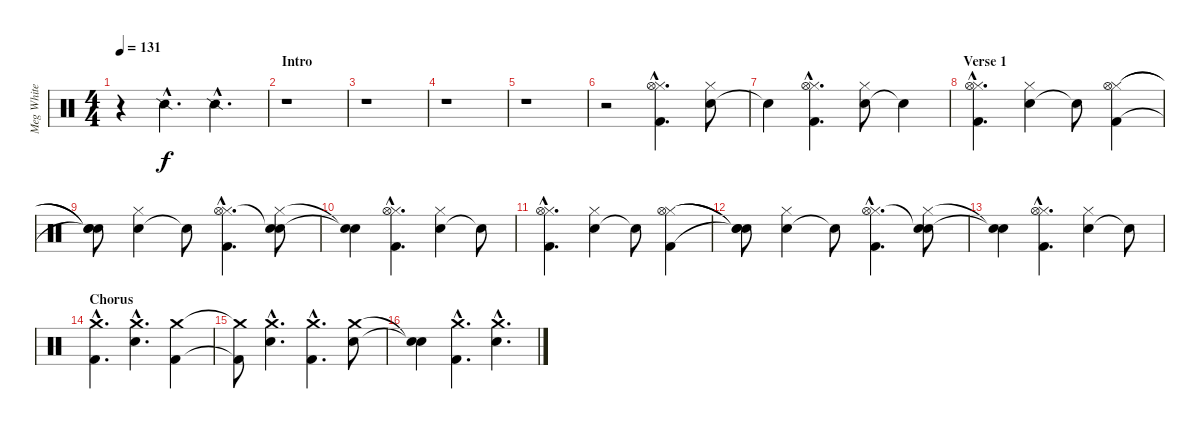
\track ("Meg White" "Meg White") {instrument percussion}
\staff {score}
\articulation defaults
\ts (4 4)
\tempo 131
\clef neutral
\ks c
r.4{dy f} "Snare (side stick) 2"{hac}.4{d} "Snare (side stick) 2"{hac}.4{d} |
\section ("" "Intro")
r.1 |
r.1 |
r.1 |
r.1 |
r.2 ("Kick (hit) 2"{hac} "Hi-Hat (closed)"{hac} "Hi-Hat (open)"{hac}).4{d} ("Electric Snare (hit)" "Hi-Hat (closed)").8 |
"Snare (hit)"{t}.4 ("Kick (hit) 2"{hac} "Hi-Hat (closed)"{hac} "Hi-Hat (open)"{hac}).4{d} ("Electric Snare (hit)" "Hi-Hat (closed)").8 "Snare (hit)"{t}.4 |
\section ("" "Verse 1")
("Kick (hit) 2"{hac} "Hi-Hat (closed)"{hac} "Hi-Hat (open)"{hac}).4{d} ("Electric Snare (hit)" "Hi-Hat (closed)").4 "Snare (hit)"{t}.8 ("Kick (hit) 2" "Hi-Hat (closed)" "Hi-Hat (open)").4 |
("Snare (hit)"{t} "Snare (hit)"{t} "Snare (hit)"{t}).8 ("Electric Snare (hit)" "Hi-Hat (closed)").4 "Snare (hit)"{t}.8 ("Kick (hit) 2"{hac} "Hi-Hat (closed)"{hac} "Hi-Hat (open)"{hac}).4{d} ("Electric Snare (hit)" "Hi-Hat (closed)" "Snare (hit)"{t}).8 |
("Snare (hit)"{t} "Snare (hit)"{t}).4 ("Kick (hit) 2"{hac} "Hi-Hat (closed)"{hac} "Hi-Hat (open)"{hac}).4{d} ("Electric Snare (hit)" "Hi-Hat (closed)").4 "Snare (hit)"{t}.8 |
("Kick (hit) 2"{hac} "Hi-Hat (closed)"{hac} "Hi-Hat (open)"{hac}).4{d} ("Electric Snare (hit)" "Hi-Hat (closed)").4 "Snare (hit)"{t}.8 ("Kick (hit) 2" "Hi-Hat (closed)" "Hi-Hat (open)").4 |
("Snare (hit)"{t} "Snare (hit)"{t} "Snare (hit)"{t}).8 ("Electric Snare (hit)" "Hi-Hat (closed)").4 "Snare (hit)"{t}.8 ("Kick (hit) 2"{hac} "Hi-Hat (closed)"{hac} "Hi-Hat (open)"{hac}).4{d} ("Electric Snare (hit)" "Hi-Hat (closed)" "Snare (hit)"{t}).8 |
("Snare (hit)"{t} "Snare (hit)"{t}).4 ("Kick (hit) 2"{hac} "Hi-Hat (closed)"{hac} "Hi-Hat (open)"{hac}).4{d} ("Electric Snare (hit)" "Hi-Hat (closed)").4 "Snare (hit)"{t}.8 |
\section ("" "Chorus")
("Kick (hit) 2"{hac} "Crash medium (hit)"{hac}).4{d volume 16} ("Electric Snare (hit)"{hac} "Crash medium (hit)"{hac}).4{d} ("Kick (hit) 2" "Crash medium (hit)").4 |
("Kick (hit) 2"{t} "Crash medium (hit)"{t}).8 ("Electric Snare (hit)"{hac} "Crash medium (hit)"{hac}).4{d} ("Kick (hit) 2"{hac} "Crash medium (hit)"{hac}).4{d} ("Electric Snare (hit)" "Crash medium (hit)").8 |
("Snare (hit)"{t} "Snare (hit)"{t}).4 ("Kick (hit) 2"{hac} "Crash medium (hit)"{hac}).4{d} ("Electric Snare (hit)"{hac} "Crash medium (hit)"{hac}).4{d}
